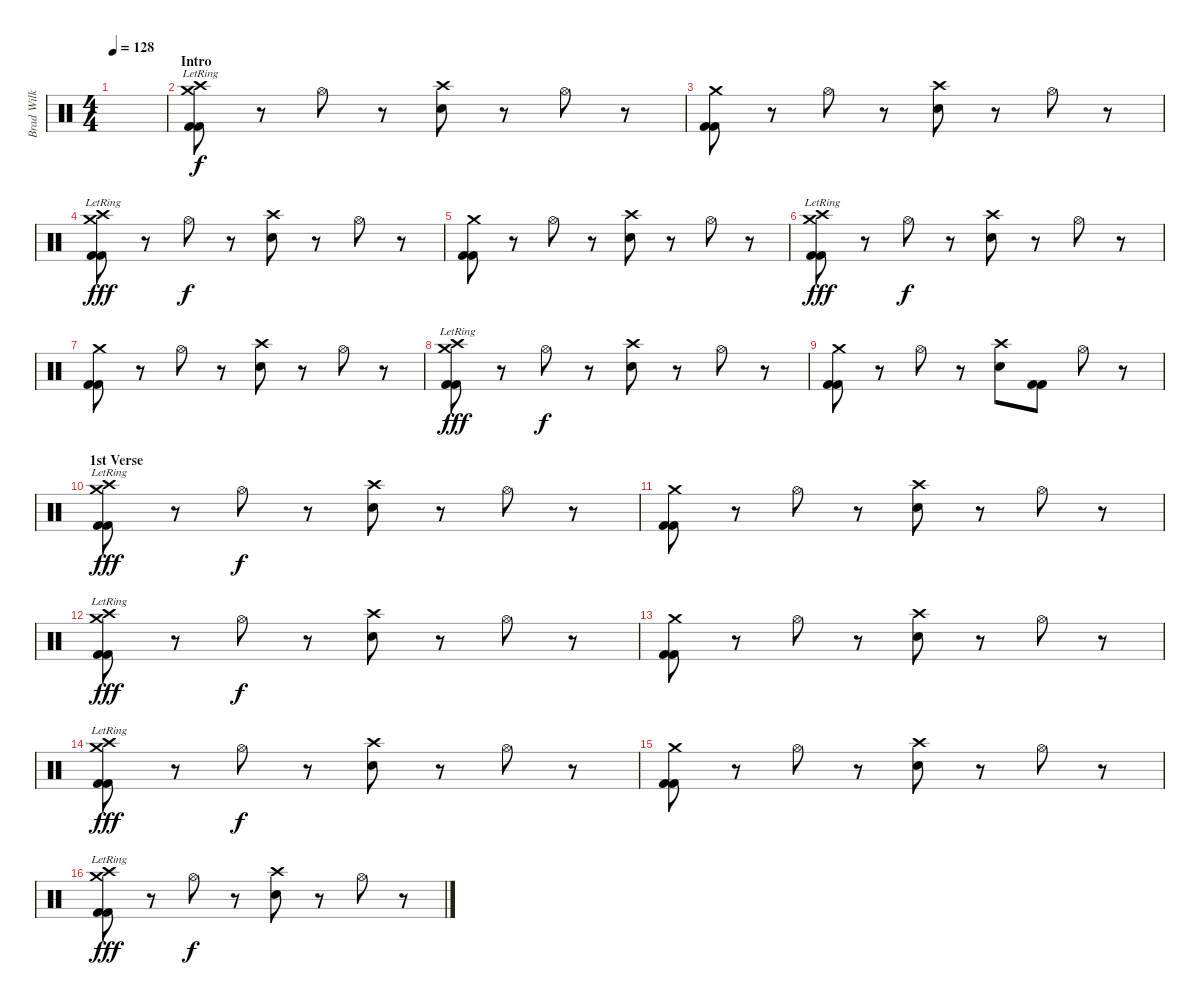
\track ("Brad Wilk" "Brad Wilk") {instrument percussion}
\staff {score}
\articulation defaults
\ts (4 4)
\tempo 128
\clef neutral
\ks c
|
\section ("" "Intro")
("Crash high (hit)"{lr} "Crash medium (hit)"{lr} "Kick (hit) 2" "Kick (hit) 2").8 r.8 "Hi-Hat (open)".8{dy f} r.8 ("Crash high (hit)" "Electric Snare (hit)").8 r.8 "Hi-Hat (open)".8 r.8 |
("Crash medium (hit)" "Kick (hit) 2" "Kick (hit) 2").8 r.8 "Hi-Hat (open)".8 r.8 ("Crash high (hit)" "Electric Snare (hit)").8 r.8 "Hi-Hat (open)".8 r.8 |
("Crash high (hit)"{lr} "Crash medium (hit)"{lr} "Kick (hit) 2" "Kick (hit) 2").8{dy fff} r.8 "Hi-Hat (open)".8{dy f} r.8 ("Crash high (hit)" "Electric Snare (hit)").8 r.8 "Hi-Hat (open)".8 r.8 |
("Crash medium (hit)" "Kick (hit) 2" "Kick (hit) 2").8 r.8 "Hi-Hat (open)".8 r.8 ("Crash high (hit)" "Electric Snare (hit)").8 r.8 "Hi-Hat (open)".8 r.8 |
("Crash high (hit)"{lr} "Crash medium (hit)"{lr} "Kick (hit) 2" "Kick (hit) 2").8{dy fff} r.8 "Hi-Hat (open)".8{dy f} r.8 ("Crash high (hit)" "Electric Snare (hit)").8 r.8 "Hi-Hat (open)".8 r.8 |
("Crash medium (hit)" "Kick (hit) 2" "Kick (hit) 2").8 r.8 "Hi-Hat (open)".8 r.8 ("Crash high (hit)" "Electric Snare (hit)").8 r.8 "Hi-Hat (open)".8 r.8 |
("Crash high (hit)"{lr} "Crash medium (hit)"{lr} "Kick (hit) 2" "Kick (hit) 2").8{dy fff} r.8 "Hi-Hat (open)".8{dy f} r.8 ("Crash high (hit)" "Electric Snare (hit)").8 r.8 "Hi-Hat (open)".8 r.8 |
("Crash medium (hit)" "Kick (hit) 2" "Kick (hit) 2").8 r.8 "Hi-Hat (open)".8 r.8 ("Crash high (hit)" "Electric Snare (hit)").8 ("Kick (hit) 2" "Kick (hit) 2").8 "Hi-Hat (open)".8 r.8 |
\section ("" "1st Verse")
("Crash high (hit)"{lr} "Crash medium (hit)"{lr} "Kick (hit) 2" "Kick (hit) 2").8{dy fff} r.8 "Hi-Hat (open)".8{dy f} r.8 ("Crash high (hit)" "Electric Snare (hit)").8 r.8 "Hi-Hat (open)".8 r.8 |
("Crash medium (hit)" "Kick (hit) 2" "Kick (hit) 2").8 r.8 "Hi-Hat (open)".8 r.8 ("Crash high (hit)" "Electric Snare (hit)").8 r.8 "Hi-Hat (open)".8 r.8 |
("Crash high (hit)"{lr} "Crash medium (hit)"{lr} "Kick (hit) 2" "Kick (hit) 2").8{dy fff} r.8 "Hi-Hat (open)".8{dy f} r.8 ("Crash high (hit)" "Electric Snare (hit)").8 r.8 "Hi-Hat (open)".8 r.8 |
("Crash medium (hit)" "Kick (hit) 2" "Kick (hit) 2").8 r.8 "Hi-Hat (open)".8 r.8 ("Crash high (hit)" "Electric Snare (hit)").8 r.8 "Hi-Hat (open)".8 r.8 |
("Crash high (hit)"{lr} "Crash medium (hit)"{lr} "Kick (hit) 2" "Kick (hit) 2").8{dy fff} r.8 "Hi-Hat (open)".8{dy f} r.8 ("Crash high (hit)" "Electric Snare (hit)").8 r.8 "Hi-Hat (open)".8 r.8 |
("Crash medium (hit)" "Kick (hit) 2" "Kick (hit) 2").8 r.8 "Hi-Hat (open)".8 r.8 ("Crash high (hit)" "Electric Snare (hit)").8 r.8 "Hi-Hat (open)".8 r.8 |
("Crash high (hit)"{lr} "Crash medium (hit)"{lr} "Kick (hit) 2" "Kick (hit) 2").8{dy fff} r.8 "Hi-Hat (open)".8{dy f} r.8 ("Crash high (hit)" "Electric Snare (hit)").8 r.8 "Hi-Hat (open)".8 r.8
